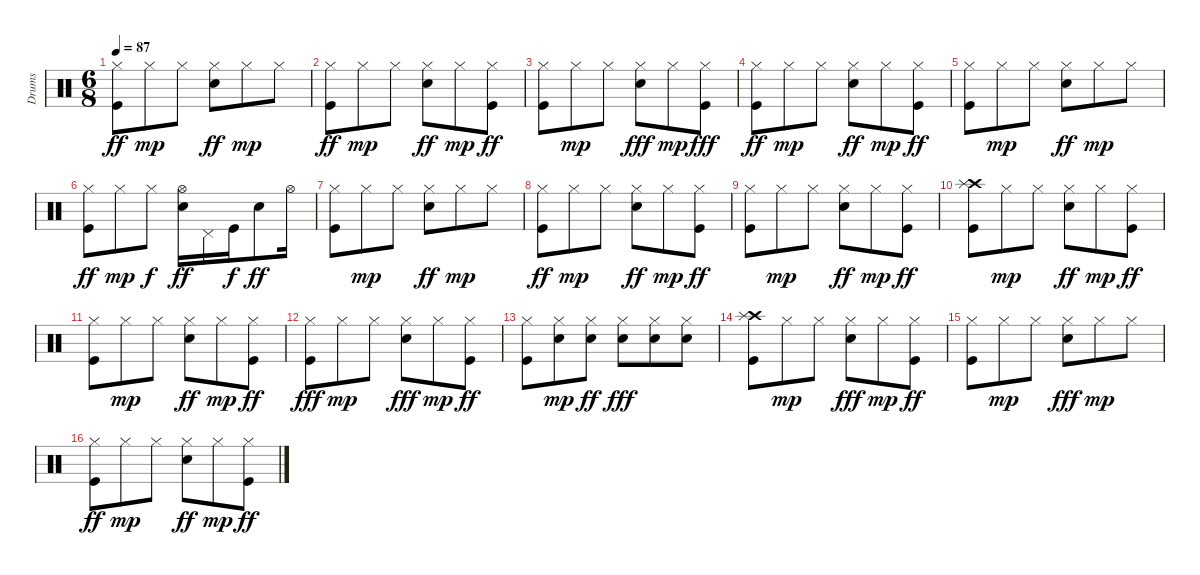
\track ("Drums" "Drums") {instrument percussion}
\staff {score}
\articulation defaults
\ts (6 8)
\tempo 87
\clef neutral
\ks c
("Hi-Hat (closed)" "Kick (hit)").8{dy ff} "Hi-Hat (closed)".8{dy mp} "Hi-Hat (closed)".8 ("Hi-Hat (closed)" "Snare (hit) 2").8{dy ff} "Hi-Hat (closed)".8{dy mp} "Hi-Hat (closed)".8 |
("Hi-Hat (closed)" "Kick (hit)").8{dy ff} "Hi-Hat (closed)".8{dy mp} "Hi-Hat (closed)".8 ("Hi-Hat (closed)" "Snare (hit) 2").8{dy ff} "Hi-Hat (closed)".8{dy mp} ("Hi-Hat (closed)" "Kick (hit)").8{dy ff} |
("Hi-Hat (closed)" "Kick (hit)").8 "Hi-Hat (closed)".8{dy mp} "Hi-Hat (closed)".8 ("Hi-Hat (closed)" "Snare (hit) 2").8{dy fff} "Hi-Hat (closed)".8{dy mp} ("Hi-Hat (closed)" "Kick (hit)").8{dy fff} |
("Hi-Hat (closed)" "Kick (hit)").8{dy ff} "Hi-Hat (closed)".8{dy mp} "Hi-Hat (closed)".8 ("Hi-Hat (closed)" "Snare (hit) 2").8{dy ff} "Hi-Hat (closed)".8{dy mp} ("Hi-Hat (closed)" "Kick (hit)").8{dy ff} |
("Hi-Hat (closed)" "Kick (hit)").8 "Hi-Hat (closed)".8{dy mp} "Hi-Hat (closed)".8 ("Hi-Hat (closed)" "Snare (hit) 2").8{dy ff} "Hi-Hat (closed)".8{dy mp} "Hi-Hat (closed)".8 |
("Hi-Hat (closed)" "Kick (hit)").8{dy ff} "Hi-Hat (closed)".8{dy mp} "Hi-Hat (closed)".8{dy f} ("Hi-Hat (open)" "Snare (hit) 2").16{dy ff} "Pedal Hi-Hat (hit)".16 "Kick (hit)".16{dy f} "Snare (hit) 2".8{dy ff} "Hi-Hat (open)".16 |
("Hi-Hat (closed)" "Kick (hit)").8 "Hi-Hat (closed)".8{dy mp} "Hi-Hat (closed)".8 ("Hi-Hat (closed)" "Snare (hit) 2").8{dy ff} "Hi-Hat (closed)".8{dy mp} "Hi-Hat (closed)".8 |
("Hi-Hat (closed)" "Kick (hit)").8{dy ff} "Hi-Hat (closed)".8{dy mp} "Hi-Hat (closed)".8 ("Hi-Hat (closed)" "Snare (hit) 2").8{dy ff} "Hi-Hat (closed)".8{dy mp} ("Hi-Hat (closed)" "Kick (hit)").8{dy ff} |
("Hi-Hat (closed)" "Kick (hit)").8 "Hi-Hat (closed)".8{dy mp} "Hi-Hat (closed)".8 ("Hi-Hat (closed)" "Snare (hit) 2").8{dy ff} "Hi-Hat (closed)".8{dy mp} ("Hi-Hat (closed)" "Kick (hit)").8{dy ff} |
("Crash high (hit)" "Splash (hit)" "Kick (hit)").8 "Hi-Hat (closed)".8{dy mp} "Hi-Hat (closed)".8 ("Hi-Hat (closed)" "Snare (hit) 2").8{dy ff} "Hi-Hat (closed)".8{dy mp} ("Hi-Hat (closed)" "Kick (hit)").8{dy ff} |
("Hi-Hat (closed)" "Kick (hit)").8 "Hi-Hat (closed)".8{dy mp} "Hi-Hat (closed)".8 ("Hi-Hat (closed)" "Snare (hit) 2").8{dy ff} "Hi-Hat (closed)".8{dy mp} ("Hi-Hat (closed)" "Kick (hit)").8{dy ff} |
("Hi-Hat (closed)" "Kick (hit)").8{dy fff} "Hi-Hat (closed)".8{dy mp} "Hi-Hat (closed)".8 ("Hi-Hat (closed)" "Snare (hit) 2").8{dy fff} "Hi-Hat (closed)".8{dy mp} ("Hi-Hat (closed)" "Kick (hit)").8{dy ff} |
("Hi-Hat (closed)" "Kick (hit)").8 ("Hi-Hat (closed)" "Snare (hit) 2").8{dy mp} ("Hi-Hat (closed)" "Snare (hit) 2").8{dy ff} ("Hi-Hat (closed)" "Snare (hit) 2").8{dy fff} ("Hi-Hat (closed)" "Snare (hit) 2").8 ("Hi-Hat (closed)" "Snare (hit) 2").8 |
("Crash high (hit)" "Splash (hit)" "Kick (hit)").8 "Hi-Hat (closed)".8{dy mp} "Hi-Hat (closed)".8 ("Hi-Hat (closed)" "Snare (hit) 2").8{dy fff} "Hi-Hat (closed)".8{dy mp} ("Hi-Hat (closed)" "Kick (hit)").8{dy ff} |
("Hi-Hat (closed)" "Kick (hit)").8 "Hi-Hat (closed)".8{dy mp} "Hi-Hat (closed)".8 ("Hi-Hat (closed)" "Snare (hit) 2").8{dy fff} "Hi-Hat (closed)".8{dy mp} "Hi-Hat (closed)".8 |
("Hi-Hat (closed)" "Kick (hit)").8{dy ff} "Hi-Hat (closed)".8{dy mp} "Hi-Hat (closed)".8 ("Hi-Hat (closed)" "Snare (hit) 2").8{dy ff} "Hi-Hat (closed)".8{dy mp} ("Hi-Hat (closed)" "Kick (hit)").8{dy ff}
